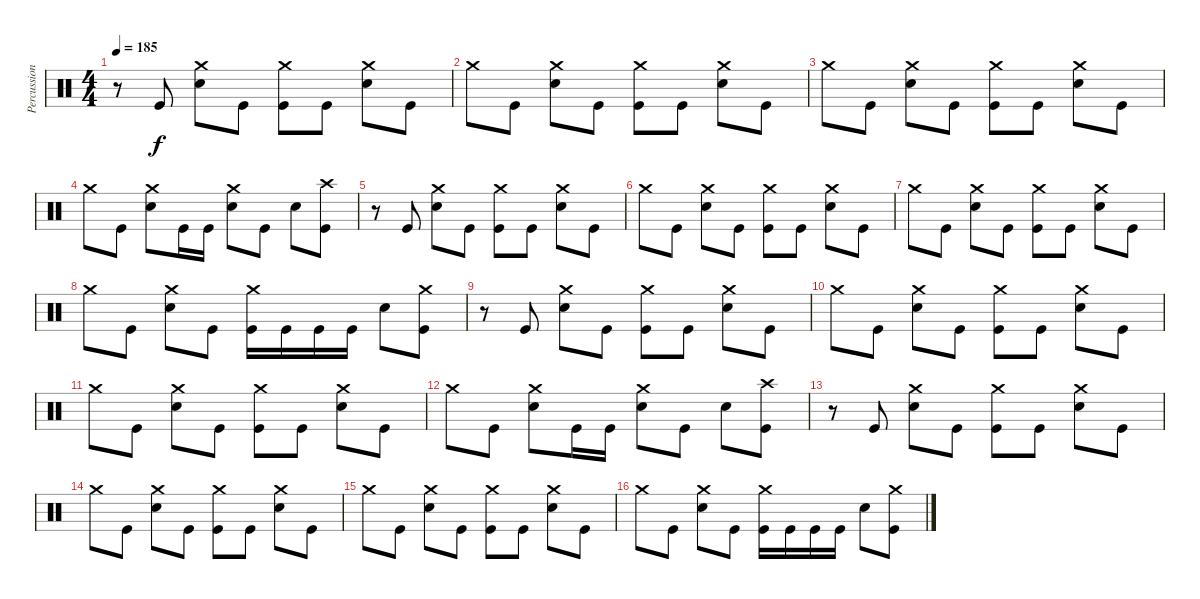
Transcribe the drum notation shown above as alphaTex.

\track ("Percussion" "Percussion") {instrument percussion}
\staff {score}
\articulation defaults
\ts (4 4)
\tempo 185
\clef neutral
\ks c
r.8{dy f} "Kick (hit)".8 ("Crash medium (hit)" "Electric Snare (hit)").8 "Kick (hit)".8 ("Crash medium (hit)" "Kick (hit)").8 "Kick (hit)".8 ("Crash medium (hit)" "Electric Snare (hit)").8 "Kick (hit)".8 |
"Crash medium (hit)".8 "Kick (hit)".8 ("Crash medium (hit)" "Electric Snare (hit)").8 "Kick (hit)".8 ("Crash medium (hit)" "Kick (hit)").8 "Kick (hit)".8 ("Crash medium (hit)" "Electric Snare (hit)").8 "Kick (hit)".8 |
"Crash medium (hit)".8 "Kick (hit)".8 ("Crash medium (hit)" "Electric Snare (hit)").8 "Kick (hit)".8 ("Crash medium (hit)" "Kick (hit)").8 "Kick (hit)".8 ("Crash medium (hit)" "Electric Snare (hit)").8 "Kick (hit)".8 |
"Crash medium (hit)".8 "Kick (hit)".8 ("Crash medium (hit)" "Electric Snare (hit)").8 "Kick (hit)".16 "Kick (hit)".16 ("Crash medium (hit)" "Electric Snare (hit)").8 "Kick (hit)".8 "Electric Snare (hit)".8 ("Crash high (hit)" "Kick (hit)").8 |
r.8 "Kick (hit)".8 ("Crash medium (hit)" "Electric Snare (hit)").8 "Kick (hit)".8 ("Crash medium (hit)" "Kick (hit)").8 "Kick (hit)".8 ("Crash medium (hit)" "Electric Snare (hit)").8 "Kick (hit)".8 |
"Crash medium (hit)".8 "Kick (hit)".8 ("Crash medium (hit)" "Electric Snare (hit)").8 "Kick (hit)".8 ("Crash medium (hit)" "Kick (hit)").8 "Kick (hit)".8 ("Crash medium (hit)" "Electric Snare (hit)").8 "Kick (hit)".8 |
"Crash medium (hit)".8 "Kick (hit)".8 ("Crash medium (hit)" "Electric Snare (hit)").8 "Kick (hit)".8 ("Crash medium (hit)" "Kick (hit)").8 "Kick (hit)".8 ("Crash medium (hit)" "Electric Snare (hit)").8 "Kick (hit)".8 |
"Crash medium (hit)".8 "Kick (hit)".8 ("Crash medium (hit)" "Electric Snare (hit)").8 "Kick (hit)".8 ("Crash medium (hit)" "Kick (hit)").16 "Kick (hit)".16 "Kick (hit)".16 "Kick (hit)".16 "Electric Snare (hit)".8 ("Crash medium (hit)" "Kick (hit)").8 |
r.8 "Kick (hit)".8 ("Crash medium (hit)" "Electric Snare (hit)").8 "Kick (hit)".8 ("Crash medium (hit)" "Kick (hit)").8 "Kick (hit)".8 ("Crash medium (hit)" "Electric Snare (hit)").8 "Kick (hit)".8 |
"Crash medium (hit)".8 "Kick (hit)".8 ("Crash medium (hit)" "Electric Snare (hit)").8 "Kick (hit)".8 ("Crash medium (hit)" "Kick (hit)").8 "Kick (hit)".8 ("Crash medium (hit)" "Electric Snare (hit)").8 "Kick (hit)".8 |
"Crash medium (hit)".8 "Kick (hit)".8 ("Crash medium (hit)" "Electric Snare (hit)").8 "Kick (hit)".8 ("Crash medium (hit)" "Kick (hit)").8 "Kick (hit)".8 ("Crash medium (hit)" "Electric Snare (hit)").8 "Kick (hit)".8 |
"Crash medium (hit)".8 "Kick (hit)".8 ("Crash medium (hit)" "Electric Snare (hit)").8 "Kick (hit)".16 "Kick (hit)".16 ("Crash medium (hit)" "Electric Snare (hit)").8 "Kick (hit)".8 "Electric Snare (hit)".8 ("Crash high (hit)" "Kick (hit)").8 |
r.8 "Kick (hit)".8 ("Crash medium (hit)" "Electric Snare (hit)").8 "Kick (hit)".8 ("Crash medium (hit)" "Kick (hit)").8 "Kick (hit)".8 ("Crash medium (hit)" "Electric Snare (hit)").8 "Kick (hit)".8 |
"Crash medium (hit)".8 "Kick (hit)".8 ("Crash medium (hit)" "Electric Snare (hit)").8 "Kick (hit)".8 ("Crash medium (hit)" "Kick (hit)").8 "Kick (hit)".8 ("Crash medium (hit)" "Electric Snare (hit)").8 "Kick (hit)".8 |
"Crash medium (hit)".8 "Kick (hit)".8 ("Crash medium (hit)" "Electric Snare (hit)").8 "Kick (hit)".8 ("Crash medium (hit)" "Kick (hit)").8 "Kick (hit)".8 ("Crash medium (hit)" "Electric Snare (hit)").8 "Kick (hit)".8 |
"Crash medium (hit)".8 "Kick (hit)".8 ("Crash medium (hit)" "Electric Snare (hit)").8 "Kick (hit)".8 ("Crash medium (hit)" "Kick (hit)").16 "Kick (hit)".16 "Kick (hit)".16 "Kick (hit)".16 "Electric Snare (hit)".8 ("Crash medium (hit)" "Kick (hit)").8
